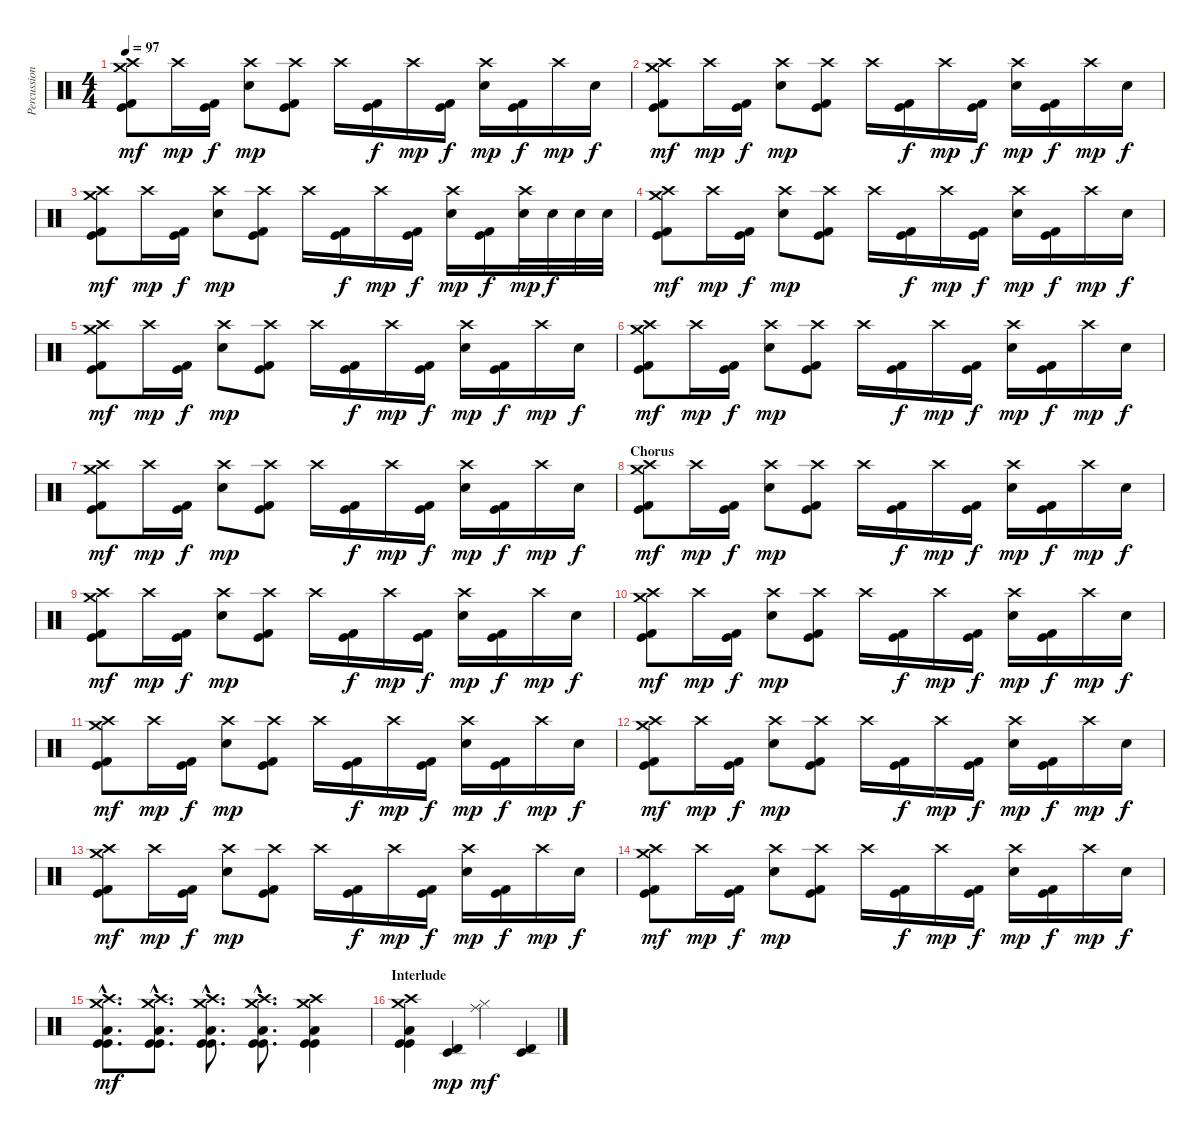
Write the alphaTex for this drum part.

\track ("Percussion - Skinny" "Percussion") {instrument percussion}
\staff {score}
\articulation defaults
\ts (4 4)
\tempo 97
\clef neutral
\ks c
("Crash high (hit)" "Crash medium (hit)" "Kick (hit) 2" "Kick (hit)").8{dy mf} "Crash high (hit)".16{dy mp} ("Kick (hit) 2" "Kick (hit)").16{dy f} ("Crash high (hit)" "Electric Snare (hit)").8{dy mp} ("Crash high (hit)" "Kick (hit) 2" "Kick (hit)").8 "Crash high (hit)".16 ("Kick (hit) 2" "Kick (hit)").16{dy f} "Crash high (hit)".16{dy mp} ("Kick (hit) 2" "Kick (hit)").16{dy f} ("Crash high (hit)" "Electric Snare (hit)").16{dy mp} ("Kick (hit) 2" "Kick (hit)").16{dy f} "Crash high (hit)".16{dy mp} "Electric Snare (hit)".16{dy f} |
("Crash high (hit)" "Crash medium (hit)" "Kick (hit) 2" "Kick (hit)").8{dy mf} "Crash high (hit)".16{dy mp} ("Kick (hit) 2" "Kick (hit)").16{dy f} ("Crash high (hit)" "Electric Snare (hit)").8{dy mp} ("Crash high (hit)" "Kick (hit) 2" "Kick (hit)").8 "Crash high (hit)".16 ("Kick (hit) 2" "Kick (hit)").16{dy f} "Crash high (hit)".16{dy mp} ("Kick (hit) 2" "Kick (hit)").16{dy f} ("Crash high (hit)" "Electric Snare (hit)").16{dy mp} ("Kick (hit) 2" "Kick (hit)").16{dy f} "Crash high (hit)".16{dy mp} "Electric Snare (hit)".16{dy f} |
("Crash high (hit)" "Crash medium (hit)" "Kick (hit) 2" "Kick (hit)").8{dy mf} "Crash high (hit)".16{dy mp} ("Kick (hit) 2" "Kick (hit)").16{dy f} ("Crash high (hit)" "Electric Snare (hit)").8{dy mp} ("Crash high (hit)" "Kick (hit) 2" "Kick (hit)").8 "Crash high (hit)".16 ("Kick (hit) 2" "Kick (hit)").16{dy f} "Crash high (hit)".16{dy mp} ("Kick (hit) 2" "Kick (hit)").16{dy f} ("Crash high (hit)" "Electric Snare (hit)").16{dy mp} ("Kick (hit) 2" "Kick (hit)").16{dy f} ("Crash high (hit)" "Electric Snare (hit)").32{dy mp} "Electric Snare (hit)".32{dy f} "Electric Snare (hit)".32 "Electric Snare (hit)".32 |
("Crash high (hit)" "Crash medium (hit)" "Kick (hit) 2" "Kick (hit)").8{dy mf} "Crash high (hit)".16{dy mp} ("Kick (hit) 2" "Kick (hit)").16{dy f} ("Crash high (hit)" "Electric Snare (hit)").8{dy mp} ("Crash high (hit)" "Kick (hit) 2" "Kick (hit)").8 "Crash high (hit)".16 ("Kick (hit) 2" "Kick (hit)").16{dy f} "Crash high (hit)".16{dy mp} ("Kick (hit) 2" "Kick (hit)").16{dy f} ("Crash high (hit)" "Electric Snare (hit)").16{dy mp} ("Kick (hit) 2" "Kick (hit)").16{dy f} "Crash high (hit)".16{dy mp} "Electric Snare (hit)".16{dy f} |
("Crash high (hit)" "Crash medium (hit)" "Kick (hit) 2" "Kick (hit)").8{dy mf} "Crash high (hit)".16{dy mp} ("Kick (hit) 2" "Kick (hit)").16{dy f} ("Crash high (hit)" "Electric Snare (hit)").8{dy mp} ("Crash high (hit)" "Kick (hit) 2" "Kick (hit)").8 "Crash high (hit)".16 ("Kick (hit) 2" "Kick (hit)").16{dy f} "Crash high (hit)".16{dy mp} ("Kick (hit) 2" "Kick (hit)").16{dy f} ("Crash high (hit)" "Electric Snare (hit)").16{dy mp} ("Kick (hit) 2" "Kick (hit)").16{dy f} "Crash high (hit)".16{dy mp} "Electric Snare (hit)".16{dy f} |
("Crash high (hit)" "Crash medium (hit)" "Kick (hit) 2" "Kick (hit)").8{dy mf} "Crash high (hit)".16{dy mp} ("Kick (hit) 2" "Kick (hit)").16{dy f} ("Crash high (hit)" "Electric Snare (hit)").8{dy mp} ("Crash high (hit)" "Kick (hit) 2" "Kick (hit)").8 "Crash high (hit)".16 ("Kick (hit) 2" "Kick (hit)").16{dy f} "Crash high (hit)".16{dy mp} ("Kick (hit) 2" "Kick (hit)").16{dy f} ("Crash high (hit)" "Electric Snare (hit)").16{dy mp} ("Kick (hit) 2" "Kick (hit)").16{dy f} "Crash high (hit)".16{dy mp} "Electric Snare (hit)".16{dy f} |
("Crash high (hit)" "Crash medium (hit)" "Kick (hit) 2" "Kick (hit)").8{dy mf} "Crash high (hit)".16{dy mp} ("Kick (hit) 2" "Kick (hit)").16{dy f} ("Crash high (hit)" "Electric Snare (hit)").8{dy mp} ("Crash high (hit)" "Kick (hit) 2" "Kick (hit)").8 "Crash high (hit)".16 ("Kick (hit) 2" "Kick (hit)").16{dy f} "Crash high (hit)".16{dy mp} ("Kick (hit) 2" "Kick (hit)").16{dy f} ("Crash high (hit)" "Electric Snare (hit)").16{dy mp} ("Kick (hit) 2" "Kick (hit)").16{dy f} "Crash high (hit)".16{dy mp} "Electric Snare (hit)".16{dy f} |
\section ("" "Chorus")
("Crash high (hit)" "Crash medium (hit)" "Kick (hit) 2" "Kick (hit)").8{dy mf} "Crash high (hit)".16{dy mp} ("Kick (hit) 2" "Kick (hit)").16{dy f} ("Crash high (hit)" "Electric Snare (hit)").8{dy mp} ("Crash high (hit)" "Kick (hit) 2" "Kick (hit)").8 "Crash high (hit)".16 ("Kick (hit) 2" "Kick (hit)").16{dy f} "Crash high (hit)".16{dy mp} ("Kick (hit) 2" "Kick (hit)").16{dy f} ("Crash high (hit)" "Electric Snare (hit)").16{dy mp} ("Kick (hit) 2" "Kick (hit)").16{dy f} "Crash high (hit)".16{dy mp} "Electric Snare (hit)".16{dy f} |
("Crash high (hit)" "Crash medium (hit)" "Kick (hit) 2" "Kick (hit)").8{dy mf} "Crash high (hit)".16{dy mp} ("Kick (hit) 2" "Kick (hit)").16{dy f} ("Crash high (hit)" "Electric Snare (hit)").8{dy mp} ("Crash high (hit)" "Kick (hit) 2" "Kick (hit)").8 "Crash high (hit)".16 ("Kick (hit) 2" "Kick (hit)").16{dy f} "Crash high (hit)".16{dy mp} ("Kick (hit) 2" "Kick (hit)").16{dy f} ("Crash high (hit)" "Electric Snare (hit)").16{dy mp} ("Kick (hit) 2" "Kick (hit)").16{dy f} "Crash high (hit)".16{dy mp} "Electric Snare (hit)".16{dy f} |
("Crash high (hit)" "Crash medium (hit)" "Kick (hit) 2" "Kick (hit)").8{dy mf} "Crash high (hit)".16{dy mp} ("Kick (hit) 2" "Kick (hit)").16{dy f} ("Crash high (hit)" "Electric Snare (hit)").8{dy mp} ("Crash high (hit)" "Kick (hit) 2" "Kick (hit)").8 "Crash high (hit)".16 ("Kick (hit) 2" "Kick (hit)").16{dy f} "Crash high (hit)".16{dy mp} ("Kick (hit) 2" "Kick (hit)").16{dy f} ("Crash high (hit)" "Electric Snare (hit)").16{dy mp} ("Kick (hit) 2" "Kick (hit)").16{dy f} "Crash high (hit)".16{dy mp} "Electric Snare (hit)".16{dy f} |
("Crash high (hit)" "Crash medium (hit)" "Kick (hit) 2" "Kick (hit)").8{dy mf} "Crash high (hit)".16{dy mp} ("Kick (hit) 2" "Kick (hit)").16{dy f} ("Crash high (hit)" "Electric Snare (hit)").8{dy mp} ("Crash high (hit)" "Kick (hit) 2" "Kick (hit)").8 "Crash high (hit)".16 ("Kick (hit) 2" "Kick (hit)").16{dy f} "Crash high (hit)".16{dy mp} ("Kick (hit) 2" "Kick (hit)").16{dy f} ("Crash high (hit)" "Electric Snare (hit)").16{dy mp} ("Kick (hit) 2" "Kick (hit)").16{dy f} "Crash high (hit)".16{dy mp} "Electric Snare (hit)".16{dy f} |
("Crash high (hit)" "Crash medium (hit)" "Kick (hit) 2" "Kick (hit)").8{dy mf} "Crash high (hit)".16{dy mp} ("Kick (hit) 2" "Kick (hit)").16{dy f} ("Crash high (hit)" "Electric Snare (hit)").8{dy mp} ("Crash high (hit)" "Kick (hit) 2" "Kick (hit)").8 "Crash high (hit)".16 ("Kick (hit) 2" "Kick (hit)").16{dy f} "Crash high (hit)".16{dy mp} ("Kick (hit) 2" "Kick (hit)").16{dy f} ("Crash high (hit)" "Electric Snare (hit)").16{dy mp} ("Kick (hit) 2" "Kick (hit)").16{dy f} "Crash high (hit)".16{dy mp} "Electric Snare (hit)".16{dy f} |
("Crash high (hit)" "Crash medium (hit)" "Kick (hit) 2" "Kick (hit)").8{dy mf} "Crash high (hit)".16{dy mp} ("Kick (hit) 2" "Kick (hit)").16{dy f} ("Crash high (hit)" "Electric Snare (hit)").8{dy mp} ("Crash high (hit)" "Kick (hit) 2" "Kick (hit)").8 "Crash high (hit)".16 ("Kick (hit) 2" "Kick (hit)").16{dy f} "Crash high (hit)".16{dy mp} ("Kick (hit) 2" "Kick (hit)").16{dy f} ("Crash high (hit)" "Electric Snare (hit)").16{dy mp} ("Kick (hit) 2" "Kick (hit)").16{dy f} "Crash high (hit)".16{dy mp} "Electric Snare (hit)".16{dy f} |
("Crash high (hit)" "Crash medium (hit)" "Kick (hit) 2" "Kick (hit)").8{dy mf} "Crash high (hit)".16{dy mp} ("Kick (hit) 2" "Kick (hit)").16{dy f} ("Crash high (hit)" "Electric Snare (hit)").8{dy mp} ("Crash high (hit)" "Kick (hit) 2" "Kick (hit)").8 "Crash high (hit)".16 ("Kick (hit) 2" "Kick (hit)").16{dy f} "Crash high (hit)".16{dy mp} ("Kick (hit) 2" "Kick (hit)").16{dy f} ("Crash high (hit)" "Electric Snare (hit)").16{dy mp} ("Kick (hit) 2" "Kick (hit)").16{dy f} "Crash high (hit)".16{dy mp} "Electric Snare (hit)".16{dy f} |
("Crash high (hit)"{hac} "Crash medium (hit)"{hac} "Low Floor Tom (hit)"{hac} "Kick (hit)"{hac} "Kick (hit)"{hac}).8{d dy mf} ("Crash high (hit)"{hac} "Crash medium (hit)"{hac} "Low Floor Tom (hit)"{hac} "Kick (hit)"{hac} "Kick (hit)"{hac}).8{d} ("Crash high (hit)"{hac} "Crash medium (hit)"{hac} "Low Floor Tom (hit)"{hac} "Kick (hit)"{hac} "Kick (hit)"{hac}).8{d} ("Crash high (hit)"{hac} "Crash medium (hit)"{hac} "Low Floor Tom (hit)"{hac} "Kick (hit)"{hac} "Kick (hit)"{hac}).8{d} ("Crash high (hit)" "Crash medium (hit)" "Low Floor Tom (hit)" "Kick (hit)" "Kick (hit)").4 |
\section ("" "Interlude")
("Crash high (hit)" "Crash medium (hit)" "Low Floor Tom (hit)" "Kick (hit)" "Kick (hit)").4 ("Timbale high (hit)" "Timbale low (hit)").4{dy mp} ("Ride (middle)" "Hi-Hat (closed)").4{dy mf} ("Timbale high (hit)" "Timbale low (hit)").4
